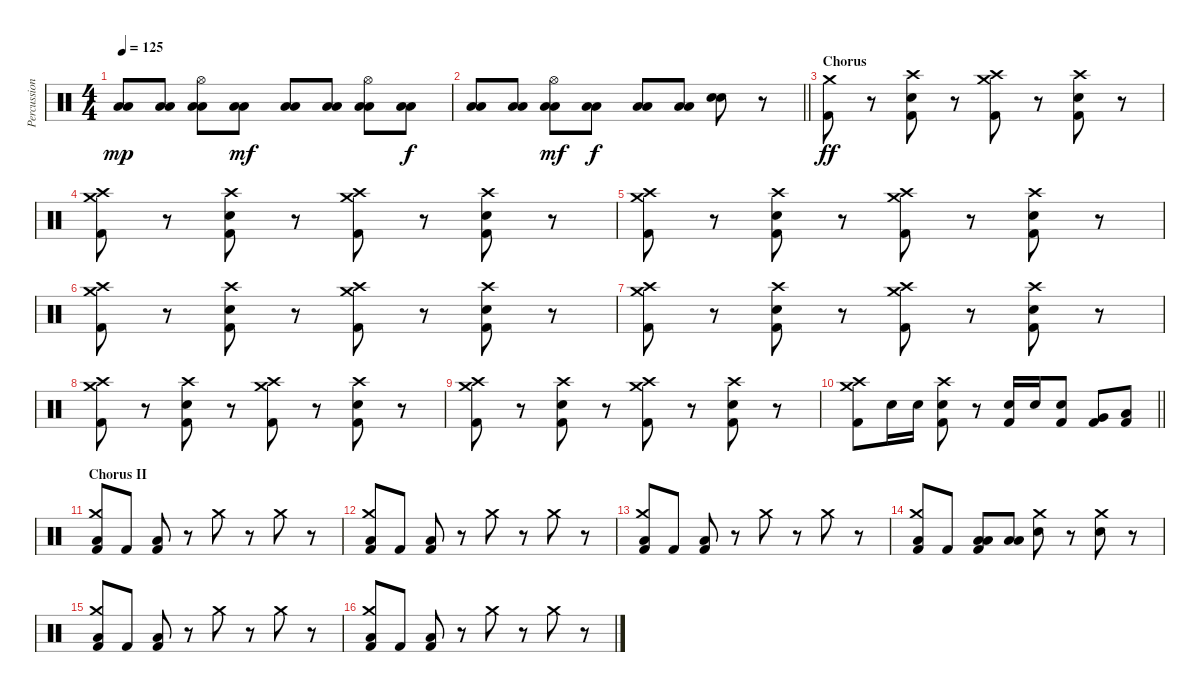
\track ("Percussion" "Percussion") {instrument percussion}
\staff {score}
\articulation defaults
\ts (4 4)
\tempo 125
\clef neutral
\ks c
("Low Floor Tom (hit)" "Low Floor Tom (hit)").8{dy mp} ("Low Floor Tom (hit)" "Low Floor Tom (hit)").8 ("Hi-Hat (open)" "Low Floor Tom (hit)" "Low Floor Tom (hit)").8 ("Low Floor Tom (hit)" "Low Floor Tom (hit)").8{dy mf} ("Low Floor Tom (hit)" "Low Floor Tom (hit)").8 ("Low Floor Tom (hit)" "Low Floor Tom (hit)").8 ("Hi-Hat (open)" "Low Floor Tom (hit)" "Low Floor Tom (hit)").8 ("Low Floor Tom (hit)" "Low Floor Tom (hit)").8{dy f} |
\barLineRight lightlight
("Low Floor Tom (hit)" "Low Floor Tom (hit)").8 ("Low Floor Tom (hit)" "Low Floor Tom (hit)").8 ("Hi-Hat (open)" "Low Floor Tom (hit)" "Low Floor Tom (hit)").8{dy mf} ("Low Floor Tom (hit)" "Low Floor Tom (hit)").8{dy f} ("Low Floor Tom (hit)" "Low Floor Tom (hit)").8 ("Low Floor Tom (hit)" "Low Floor Tom (hit)").8 ("Electric Snare (hit)" "Electric Snare (hit)").8 r.8 |
\section ("" "Chorus")
("Crash medium (hit)" "Kick (hit) 2").8{dy ff} r.8 ("Crash high (hit)" "Electric Snare (hit)" "Kick (hit) 2").8 r.8 ("Crash medium (hit)" "Crash high (hit)" "Kick (hit) 2").8 r.8 ("Crash high (hit)" "Electric Snare (hit)" "Kick (hit) 2").8 r.8 |
("Crash medium (hit)" "Crash high (hit)" "Kick (hit) 2").8 r.8 ("Crash high (hit)" "Electric Snare (hit)" "Kick (hit) 2").8 r.8 ("Crash medium (hit)" "Crash high (hit)" "Kick (hit) 2").8 r.8 ("Crash high (hit)" "Electric Snare (hit)" "Kick (hit) 2").8 r.8 |
("Crash medium (hit)" "Crash high (hit)" "Kick (hit) 2").8 r.8 ("Crash high (hit)" "Electric Snare (hit)" "Kick (hit) 2").8 r.8 ("Crash medium (hit)" "Crash high (hit)" "Kick (hit) 2").8 r.8 ("Crash high (hit)" "Electric Snare (hit)" "Kick (hit) 2").8 r.8 |
("Crash medium (hit)" "Crash high (hit)" "Kick (hit) 2").8 r.8 ("Crash high (hit)" "Electric Snare (hit)" "Kick (hit) 2").8 r.8 ("Crash medium (hit)" "Crash high (hit)" "Kick (hit) 2").8 r.8 ("Crash high (hit)" "Electric Snare (hit)" "Kick (hit) 2").8 r.8 |
("Crash medium (hit)" "Crash high (hit)" "Kick (hit) 2").8 r.8 ("Crash high (hit)" "Electric Snare (hit)" "Kick (hit) 2").8 r.8 ("Crash medium (hit)" "Crash high (hit)" "Kick (hit) 2").8 r.8 ("Crash high (hit)" "Electric Snare (hit)" "Kick (hit) 2").8 r.8 |
("Crash medium (hit)" "Crash high (hit)" "Kick (hit) 2").8 r.8 ("Crash high (hit)" "Electric Snare (hit)" "Kick (hit) 2").8 r.8 ("Crash medium (hit)" "Crash high (hit)" "Kick (hit) 2").8 r.8 ("Crash high (hit)" "Electric Snare (hit)" "Kick (hit) 2").8 r.8 |
("Crash medium (hit)" "Crash high (hit)" "Kick (hit) 2").8 r.8 ("Crash high (hit)" "Electric Snare (hit)" "Kick (hit) 2").8 r.8 ("Crash medium (hit)" "Crash high (hit)" "Kick (hit) 2").8 r.8 ("Crash high (hit)" "Electric Snare (hit)" "Kick (hit) 2").8 r.8 |
\barLineRight lightlight
("Crash medium (hit)" "Crash high (hit)" "Kick (hit) 2").8 "Electric Snare (hit)".16 "Electric Snare (hit)".16 ("Crash high (hit)" "Electric Snare (hit)" "Kick (hit) 2").8 r.8 ("Electric Snare (hit)" "Kick (hit) 2").16 "Electric Snare (hit)".16 ("Electric Snare (hit)" "Kick (hit) 2").8 ("Very Low Tom (hit)" "Kick (hit) 2").8 ("Low Floor Tom (hit)" "Kick (hit) 2").8 |
\section ("" "Chorus II")
("Crash medium (hit)" "Low Floor Tom (hit)" "Kick (hit) 2").8 "Kick (hit) 2".8 ("Low Floor Tom (hit)" "Kick (hit) 2").8 r.8 "Crash medium (hit)".8 r.8 "Crash medium (hit)".8 r.8 |
("Crash medium (hit)" "Low Floor Tom (hit)" "Kick (hit) 2").8 "Kick (hit) 2".8 ("Low Floor Tom (hit)" "Kick (hit) 2").8 r.8 "Crash medium (hit)".8 r.8 "Crash medium (hit)".8 r.8 |
("Crash medium (hit)" "Low Floor Tom (hit)" "Kick (hit) 2").8 "Kick (hit) 2".8 ("Low Floor Tom (hit)" "Kick (hit) 2").8 r.8 "Crash medium (hit)".8 r.8 "Crash medium (hit)".8 r.8 |
("Crash medium (hit)" "Low Floor Tom (hit)" "Kick (hit) 2").8 "Kick (hit) 2".8 ("Low Floor Tom (hit)" "Low Floor Tom (hit)" "Kick (hit) 2").8 ("Low Floor Tom (hit)" "Low Floor Tom (hit)").8 ("Crash medium (hit)" "Electric Snare (hit)").8 r.8 ("Crash medium (hit)" "Electric Snare (hit)").8 r.8 |
("Crash medium (hit)" "Low Floor Tom (hit)" "Kick (hit) 2").8 "Kick (hit) 2".8 ("Low Floor Tom (hit)" "Kick (hit) 2").8 r.8 "Crash medium (hit)".8 r.8 "Crash medium (hit)".8 r.8 |
("Crash medium (hit)" "Low Floor Tom (hit)" "Kick (hit) 2").8 "Kick (hit) 2".8 ("Low Floor Tom (hit)" "Kick (hit) 2").8 r.8 "Crash medium (hit)".8 r.8 "Crash medium (hit)".8 r.8
